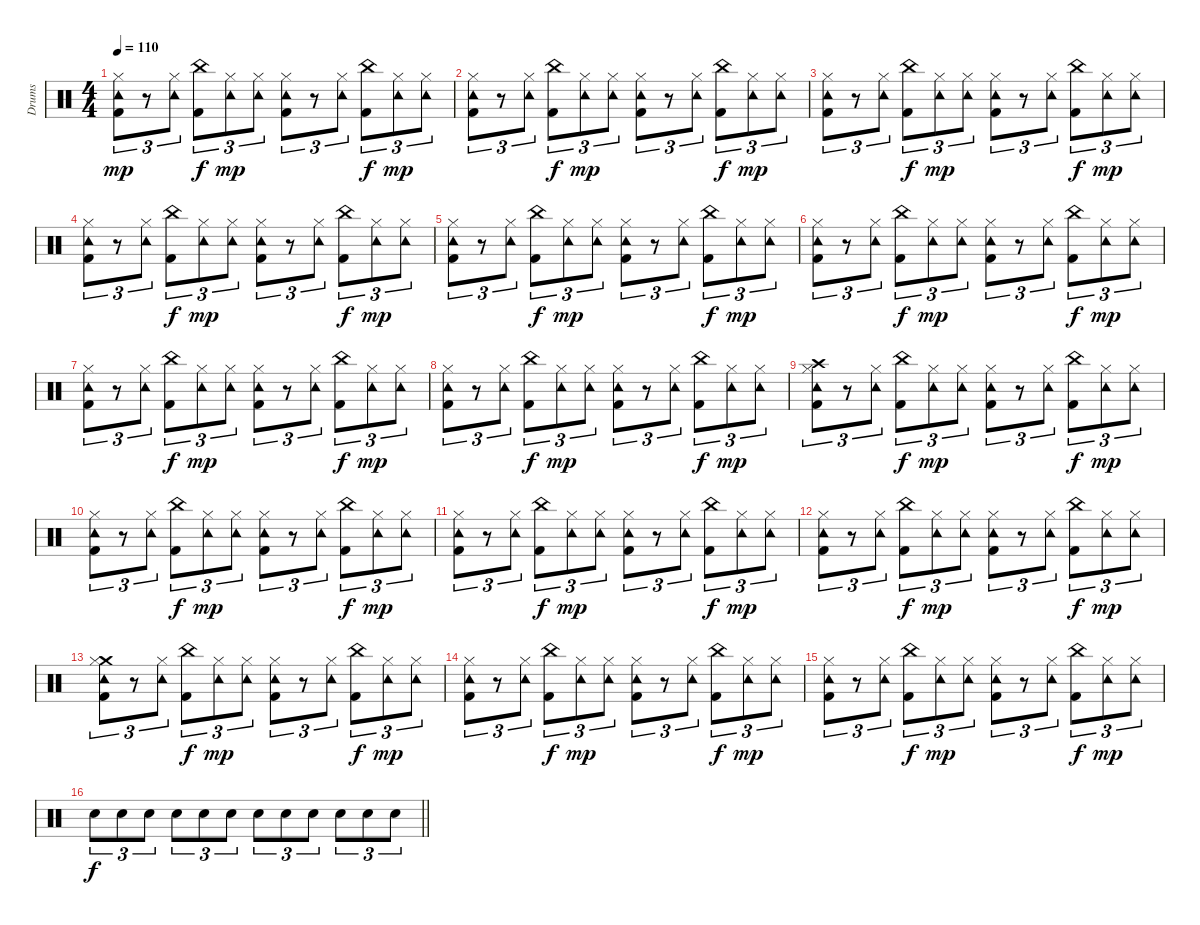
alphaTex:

\track ("Drums" "Drums") {instrument percussion}
\staff {score}
\articulation defaults
\ts (4 4)
\tempo 110
\clef neutral
\ks c
("Hi-Hat (closed)" "Tambourine (hit)" "Kick (hit) 2").8{tu (3 2) dy mp} r.8{tu (3 2)} ("Hi-Hat (closed)" "Tambourine (hit)").8{tu (3 2)} ("China (hit)" "Kick (hit) 2").8{tu (3 2) dy f} ("Hi-Hat (closed)" "Tambourine (hit)").8{tu (3 2) dy mp} ("Hi-Hat (closed)" "Tambourine (hit)").8{tu (3 2)} ("Hi-Hat (closed)" "Tambourine (hit)" "Kick (hit) 2").8{tu (3 2)} r.8{tu (3 2)} ("Hi-Hat (closed)" "Tambourine (hit)").8{tu (3 2)} ("China (hit)" "Kick (hit) 2").8{tu (3 2) dy f} ("Hi-Hat (closed)" "Tambourine (hit)").8{tu (3 2) dy mp} ("Hi-Hat (closed)" "Tambourine (hit)").8{tu (3 2)} |
("Hi-Hat (closed)" "Tambourine (hit)" "Kick (hit) 2").8{tu (3 2)} r.8{tu (3 2)} ("Hi-Hat (closed)" "Tambourine (hit)").8{tu (3 2)} ("China (hit)" "Kick (hit) 2").8{tu (3 2) dy f} ("Hi-Hat (closed)" "Tambourine (hit)").8{tu (3 2) dy mp} ("Hi-Hat (closed)" "Tambourine (hit)").8{tu (3 2)} ("Hi-Hat (closed)" "Tambourine (hit)" "Kick (hit) 2").8{tu (3 2)} r.8{tu (3 2)} ("Hi-Hat (closed)" "Tambourine (hit)").8{tu (3 2)} ("China (hit)" "Kick (hit) 2").8{tu (3 2) dy f} ("Hi-Hat (closed)" "Tambourine (hit)").8{tu (3 2) dy mp} ("Hi-Hat (closed)" "Tambourine (hit)").8{tu (3 2)} |
("Hi-Hat (closed)" "Tambourine (hit)" "Kick (hit) 2").8{tu (3 2)} r.8{tu (3 2)} ("Hi-Hat (closed)" "Tambourine (hit)").8{tu (3 2)} ("China (hit)" "Kick (hit) 2").8{tu (3 2) dy f} ("Hi-Hat (closed)" "Tambourine (hit)").8{tu (3 2) dy mp} ("Hi-Hat (closed)" "Tambourine (hit)").8{tu (3 2)} ("Hi-Hat (closed)" "Tambourine (hit)" "Kick (hit) 2").8{tu (3 2)} r.8{tu (3 2)} ("Hi-Hat (closed)" "Tambourine (hit)").8{tu (3 2)} ("China (hit)" "Kick (hit) 2").8{tu (3 2) dy f} ("Hi-Hat (closed)" "Tambourine (hit)").8{tu (3 2) dy mp} ("Hi-Hat (closed)" "Tambourine (hit)").8{tu (3 2)} |
("Hi-Hat (closed)" "Tambourine (hit)" "Kick (hit) 2").8{tu (3 2)} r.8{tu (3 2)} ("Hi-Hat (closed)" "Tambourine (hit)").8{tu (3 2)} ("China (hit)" "Kick (hit) 2").8{tu (3 2) dy f} ("Hi-Hat (closed)" "Tambourine (hit)").8{tu (3 2) dy mp} ("Hi-Hat (closed)" "Tambourine (hit)").8{tu (3 2)} ("Hi-Hat (closed)" "Tambourine (hit)" "Kick (hit) 2").8{tu (3 2)} r.8{tu (3 2)} ("Hi-Hat (closed)" "Tambourine (hit)").8{tu (3 2)} ("China (hit)" "Kick (hit) 2").8{tu (3 2) dy f} ("Hi-Hat (closed)" "Tambourine (hit)").8{tu (3 2) dy mp} ("Hi-Hat (closed)" "Tambourine (hit)").8{tu (3 2)} |
("Hi-Hat (closed)" "Tambourine (hit)" "Kick (hit) 2").8{tu (3 2)} r.8{tu (3 2)} ("Hi-Hat (closed)" "Tambourine (hit)").8{tu (3 2)} ("China (hit)" "Kick (hit) 2").8{tu (3 2) dy f} ("Hi-Hat (closed)" "Tambourine (hit)").8{tu (3 2) dy mp} ("Hi-Hat (closed)" "Tambourine (hit)").8{tu (3 2)} ("Hi-Hat (closed)" "Tambourine (hit)" "Kick (hit) 2").8{tu (3 2)} r.8{tu (3 2)} ("Hi-Hat (closed)" "Tambourine (hit)").8{tu (3 2)} ("China (hit)" "Kick (hit) 2").8{tu (3 2) dy f} ("Hi-Hat (closed)" "Tambourine (hit)").8{tu (3 2) dy mp} ("Hi-Hat (closed)" "Tambourine (hit)").8{tu (3 2)} |
("Hi-Hat (closed)" "Tambourine (hit)" "Kick (hit) 2").8{tu (3 2)} r.8{tu (3 2)} ("Hi-Hat (closed)" "Tambourine (hit)").8{tu (3 2)} ("China (hit)" "Kick (hit) 2").8{tu (3 2) dy f} ("Hi-Hat (closed)" "Tambourine (hit)").8{tu (3 2) dy mp} ("Hi-Hat (closed)" "Tambourine (hit)").8{tu (3 2)} ("Hi-Hat (closed)" "Tambourine (hit)" "Kick (hit) 2").8{tu (3 2)} r.8{tu (3 2)} ("Hi-Hat (closed)" "Tambourine (hit)").8{tu (3 2)} ("China (hit)" "Kick (hit) 2").8{tu (3 2) dy f} ("Hi-Hat (closed)" "Tambourine (hit)").8{tu (3 2) dy mp} ("Hi-Hat (closed)" "Tambourine (hit)").8{tu (3 2)} |
("Hi-Hat (closed)" "Tambourine (hit)" "Kick (hit) 2").8{tu (3 2)} r.8{tu (3 2)} ("Hi-Hat (closed)" "Tambourine (hit)").8{tu (3 2)} ("China (hit)" "Kick (hit) 2").8{tu (3 2) dy f} ("Hi-Hat (closed)" "Tambourine (hit)").8{tu (3 2) dy mp} ("Hi-Hat (closed)" "Tambourine (hit)").8{tu (3 2)} ("Hi-Hat (closed)" "Tambourine (hit)" "Kick (hit) 2").8{tu (3 2)} r.8{tu (3 2)} ("Hi-Hat (closed)" "Tambourine (hit)").8{tu (3 2)} ("China (hit)" "Kick (hit) 2").8{tu (3 2) dy f} ("Hi-Hat (closed)" "Tambourine (hit)").8{tu (3 2) dy mp} ("Hi-Hat (closed)" "Tambourine (hit)").8{tu (3 2)} |
("Hi-Hat (closed)" "Tambourine (hit)" "Kick (hit) 2").8{tu (3 2)} r.8{tu (3 2)} ("Hi-Hat (closed)" "Tambourine (hit)").8{tu (3 2)} ("China (hit)" "Kick (hit) 2").8{tu (3 2) dy f} ("Hi-Hat (closed)" "Tambourine (hit)").8{tu (3 2) dy mp} ("Hi-Hat (closed)" "Tambourine (hit)").8{tu (3 2)} ("Hi-Hat (closed)" "Tambourine (hit)" "Kick (hit) 2").8{tu (3 2)} r.8{tu (3 2)} ("Hi-Hat (closed)" "Tambourine (hit)").8{tu (3 2)} ("China (hit)" "Kick (hit) 2").8{tu (3 2) dy f} ("Hi-Hat (closed)" "Tambourine (hit)").8{tu (3 2) dy mp} ("Hi-Hat (closed)" "Tambourine (hit)").8{tu (3 2)} |
("Crash high (hit)" "Hi-Hat (closed)" "Tambourine (hit)" "Kick (hit) 2").8{tu (3 2)} r.8{tu (3 2)} ("Hi-Hat (closed)" "Tambourine (hit)").8{tu (3 2)} ("China (hit)" "Kick (hit) 2").8{tu (3 2) dy f} ("Hi-Hat (closed)" "Tambourine (hit)").8{tu (3 2) dy mp} ("Hi-Hat (closed)" "Tambourine (hit)").8{tu (3 2)} ("Hi-Hat (closed)" "Tambourine (hit)" "Kick (hit) 2").8{tu (3 2)} r.8{tu (3 2)} ("Hi-Hat (closed)" "Tambourine (hit)").8{tu (3 2)} ("China (hit)" "Kick (hit) 2").8{tu (3 2) dy f} ("Hi-Hat (closed)" "Tambourine (hit)").8{tu (3 2) dy mp} ("Hi-Hat (closed)" "Tambourine (hit)").8{tu (3 2)} |
("Hi-Hat (closed)" "Tambourine (hit)" "Kick (hit) 2").8{tu (3 2)} r.8{tu (3 2)} ("Hi-Hat (closed)" "Tambourine (hit)").8{tu (3 2)} ("China (hit)" "Kick (hit) 2").8{tu (3 2) dy f} ("Hi-Hat (closed)" "Tambourine (hit)").8{tu (3 2) dy mp} ("Hi-Hat (closed)" "Tambourine (hit)").8{tu (3 2)} ("Hi-Hat (closed)" "Tambourine (hit)" "Kick (hit) 2").8{tu (3 2)} r.8{tu (3 2)} ("Hi-Hat (closed)" "Tambourine (hit)").8{tu (3 2)} ("China (hit)" "Kick (hit) 2").8{tu (3 2) dy f} ("Hi-Hat (closed)" "Tambourine (hit)").8{tu (3 2) dy mp} ("Hi-Hat (closed)" "Tambourine (hit)").8{tu (3 2)} |
("Hi-Hat (closed)" "Tambourine (hit)" "Kick (hit) 2").8{tu (3 2)} r.8{tu (3 2)} ("Hi-Hat (closed)" "Tambourine (hit)").8{tu (3 2)} ("China (hit)" "Kick (hit) 2").8{tu (3 2) dy f} ("Hi-Hat (closed)" "Tambourine (hit)").8{tu (3 2) dy mp} ("Hi-Hat (closed)" "Tambourine (hit)").8{tu (3 2)} ("Hi-Hat (closed)" "Tambourine (hit)" "Kick (hit) 2").8{tu (3 2)} r.8{tu (3 2)} ("Hi-Hat (closed)" "Tambourine (hit)").8{tu (3 2)} ("China (hit)" "Kick (hit) 2").8{tu (3 2) dy f} ("Hi-Hat (closed)" "Tambourine (hit)").8{tu (3 2) dy mp} ("Hi-Hat (closed)" "Tambourine (hit)").8{tu (3 2)} |
("Hi-Hat (closed)" "Tambourine (hit)" "Kick (hit) 2").8{tu (3 2)} r.8{tu (3 2)} ("Hi-Hat (closed)" "Tambourine (hit)").8{tu (3 2)} ("China (hit)" "Kick (hit) 2").8{tu (3 2) dy f} ("Hi-Hat (closed)" "Tambourine (hit)").8{tu (3 2) dy mp} ("Hi-Hat (closed)" "Tambourine (hit)").8{tu (3 2)} ("Hi-Hat (closed)" "Tambourine (hit)" "Kick (hit) 2").8{tu (3 2)} r.8{tu (3 2)} ("Hi-Hat (closed)" "Tambourine (hit)").8{tu (3 2)} ("China (hit)" "Kick (hit) 2").8{tu (3 2) dy f} ("Hi-Hat (closed)" "Tambourine (hit)").8{tu (3 2) dy mp} ("Hi-Hat (closed)" "Tambourine (hit)").8{tu (3 2)} |
("Crash medium (hit)" "Hi-Hat (closed)" "Tambourine (hit)" "Kick (hit) 2").8{tu (3 2)} r.8{tu (3 2)} ("Hi-Hat (closed)" "Tambourine (hit)").8{tu (3 2)} ("China (hit)" "Kick (hit) 2").8{tu (3 2) dy f} ("Hi-Hat (closed)" "Tambourine (hit)").8{tu (3 2) dy mp} ("Hi-Hat (closed)" "Tambourine (hit)").8{tu (3 2)} ("Hi-Hat (closed)" "Tambourine (hit)" "Kick (hit) 2").8{tu (3 2)} r.8{tu (3 2)} ("Hi-Hat (closed)" "Tambourine (hit)").8{tu (3 2)} ("China (hit)" "Kick (hit) 2").8{tu (3 2) dy f} ("Hi-Hat (closed)" "Tambourine (hit)").8{tu (3 2) dy mp} ("Hi-Hat (closed)" "Tambourine (hit)").8{tu (3 2)} |
("Hi-Hat (closed)" "Tambourine (hit)" "Kick (hit) 2").8{tu (3 2)} r.8{tu (3 2)} ("Hi-Hat (closed)" "Tambourine (hit)").8{tu (3 2)} ("China (hit)" "Kick (hit) 2").8{tu (3 2) dy f} ("Hi-Hat (closed)" "Tambourine (hit)").8{tu (3 2) dy mp} ("Hi-Hat (closed)" "Tambourine (hit)").8{tu (3 2)} ("Hi-Hat (closed)" "Tambourine (hit)" "Kick (hit) 2").8{tu (3 2)} r.8{tu (3 2)} ("Hi-Hat (closed)" "Tambourine (hit)").8{tu (3 2)} ("China (hit)" "Kick (hit) 2").8{tu (3 2) dy f} ("Hi-Hat (closed)" "Tambourine (hit)").8{tu (3 2) dy mp} ("Hi-Hat (closed)" "Tambourine (hit)").8{tu (3 2)} |
("Hi-Hat (closed)" "Tambourine (hit)" "Kick (hit) 2").8{tu (3 2)} r.8{tu (3 2)} ("Hi-Hat (closed)" "Tambourine (hit)").8{tu (3 2)} ("China (hit)" "Kick (hit) 2").8{tu (3 2) dy f} ("Hi-Hat (closed)" "Tambourine (hit)").8{tu (3 2) dy mp} ("Hi-Hat (closed)" "Tambourine (hit)").8{tu (3 2)} ("Hi-Hat (closed)" "Tambourine (hit)" "Kick (hit) 2").8{tu (3 2)} r.8{tu (3 2)} ("Hi-Hat (closed)" "Tambourine (hit)").8{tu (3 2)} ("China (hit)" "Kick (hit) 2").8{tu (3 2) dy f} ("Hi-Hat (closed)" "Tambourine (hit)").8{tu (3 2) dy mp} ("Hi-Hat (closed)" "Tambourine (hit)").8{tu (3 2)} |
\barLineRight lightlight "Electric Snare (hit)".8{tu (3 2) dy f} "Electric Snare (hit)".8{tu (3 2)} "Electric Snare (hit)".8{tu (3 2)} "Electric Snare (hit)".8{tu (3 2)} "Electric Snare (hit)".8{tu (3 2)} "Electric Snare (hit)".8{tu (3 2)} "Electric Snare (hit)".8{tu (3 2)} "Electric Snare (hit)".8{tu (3 2)} "Electric Snare (hit)".8{tu (3 2)} "Electric Snare (hit)".8{tu (3 2)} "Electric Snare (hit)".8{tu (3 2)} "Electric Snare (hit)".8{tu (3 2)}
